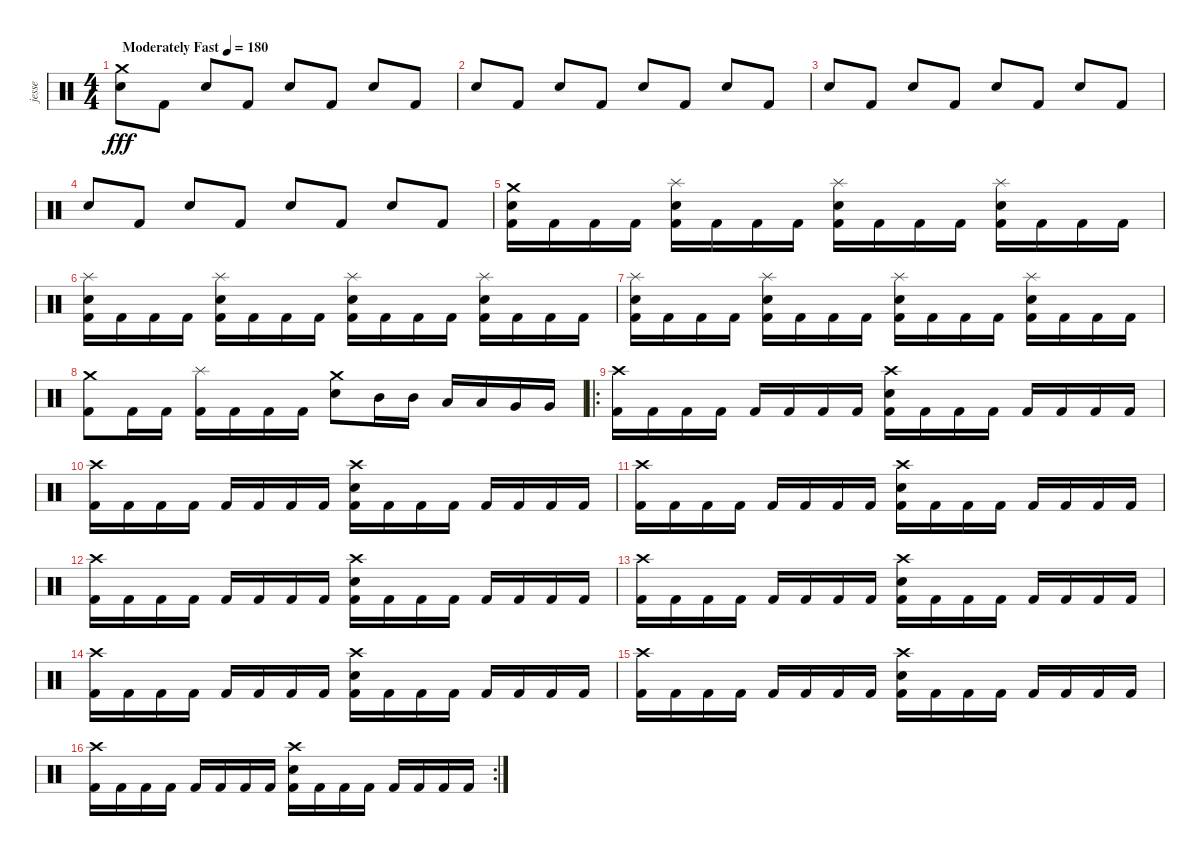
\track ("jesse" "jesse") {instrument percussion}
\staff {score}
\articulation defaults
\ts (4 4)
\tempo (180 "Moderately Fast")
\clef neutral
\ks c
("Crash medium (hit)" "Snare (hit) 2").8{dy fff} "Kick (hit) 2".8 "Snare (hit) 2".8 "Kick (hit) 2".8 "Snare (hit) 2".8 "Kick (hit) 2".8 "Snare (hit) 2".8 "Kick (hit) 2".8 |
"Snare (hit) 2".8 "Kick (hit) 2".8 "Snare (hit) 2".8 "Kick (hit) 2".8 "Snare (hit) 2".8 "Kick (hit) 2".8 "Snare (hit) 2".8 "Kick (hit) 2".8 |
"Snare (hit) 2".8 "Kick (hit) 2".8 "Snare (hit) 2".8 "Kick (hit) 2".8 "Snare (hit) 2".8 "Kick (hit) 2".8 "Snare (hit) 2".8 "Kick (hit) 2".8 |
"Snare (hit) 2".8 "Kick (hit) 2".8 "Snare (hit) 2".8 "Kick (hit) 2".8 "Snare (hit) 2".8 "Kick (hit) 2".8 "Snare (hit) 2".8 "Kick (hit) 2".8 |
("Crash medium (hit)" "Snare (hit) 2" "Kick (hit) 2").16 "Kick (hit) 2".16 "Kick (hit) 2".16 "Kick (hit) 2".16 ("Splash (hit)" "Snare (hit) 2" "Kick (hit) 2").16 "Kick (hit) 2".16 "Kick (hit) 2".16 "Kick (hit) 2".16 ("Splash (hit)" "Snare (hit) 2" "Kick (hit) 2").16 "Kick (hit) 2".16 "Kick (hit) 2".16 "Kick (hit) 2".16 ("Splash (hit)" "Snare (hit) 2" "Kick (hit) 2").16 "Kick (hit) 2".16 "Kick (hit) 2".16 "Kick (hit) 2".16 |
("Splash (hit)" "Snare (hit) 2" "Kick (hit) 2").16 "Kick (hit) 2".16 "Kick (hit) 2".16 "Kick (hit) 2".16 ("Splash (hit)" "Snare (hit) 2" "Kick (hit) 2").16 "Kick (hit) 2".16 "Kick (hit) 2".16 "Kick (hit) 2".16 ("Splash (hit)" "Snare (hit) 2" "Kick (hit) 2").16 "Kick (hit) 2".16 "Kick (hit) 2".16 "Kick (hit) 2".16 ("Splash (hit)" "Snare (hit) 2" "Kick (hit) 2").16 "Kick (hit) 2".16 "Kick (hit) 2".16 "Kick (hit) 2".16 |
("Splash (hit)" "Snare (hit) 2" "Kick (hit) 2").16 "Kick (hit) 2".16 "Kick (hit) 2".16 "Kick (hit) 2".16 ("Splash (hit)" "Snare (hit) 2" "Kick (hit) 2").16 "Kick (hit) 2".16 "Kick (hit) 2".16 "Kick (hit) 2".16 ("Splash (hit)" "Snare (hit) 2" "Kick (hit) 2").16 "Kick (hit) 2".16 "Kick (hit) 2".16 "Kick (hit) 2".16 ("Splash (hit)" "Snare (hit) 2" "Kick (hit) 2").16 "Kick (hit) 2".16 "Kick (hit) 2".16 "Kick (hit) 2".16 |
("Crash medium (hit)" "Kick (hit) 2").8 "Kick (hit) 2".16 "Kick (hit) 2".16 ("Splash (hit)" "Kick (hit) 2").16 "Kick (hit) 2".16 "Kick (hit) 2".16 "Kick (hit) 2".16 ("Crash medium (hit)" "Snare (hit) 2").8 "Mid Tom (hit)".16 "Mid Tom (hit)".16 "Low Tom (hit)".16 "Low Tom (hit)".16 "Very Low Tom (hit)".16 "Very Low Tom (hit)".16 |
\ro
("Crash high (hit)" "Kick (hit) 2").16 "Kick (hit) 2".16 "Kick (hit) 2".16 "Kick (hit) 2".16 "Kick (hit) 2".16 "Kick (hit) 2".16 "Kick (hit) 2".16 "Kick (hit) 2".16 ("Crash high (hit)" "Snare (hit) 2" "Kick (hit) 2").16 "Kick (hit) 2".16 "Kick (hit) 2".16 "Kick (hit) 2".16 "Kick (hit) 2".16 "Kick (hit) 2".16 "Kick (hit) 2".16 "Kick (hit) 2".16 |
("Crash high (hit)" "Kick (hit) 2").16 "Kick (hit) 2".16 "Kick (hit) 2".16 "Kick (hit) 2".16 "Kick (hit) 2".16 "Kick (hit) 2".16 "Kick (hit) 2".16 "Kick (hit) 2".16 ("Crash high (hit)" "Snare (hit) 2" "Kick (hit) 2").16 "Kick (hit) 2".16 "Kick (hit) 2".16 "Kick (hit) 2".16 "Kick (hit) 2".16 "Kick (hit) 2".16 "Kick (hit) 2".16 "Kick (hit) 2".16 |
("Crash high (hit)" "Kick (hit) 2").16 "Kick (hit) 2".16 "Kick (hit) 2".16 "Kick (hit) 2".16 "Kick (hit) 2".16 "Kick (hit) 2".16 "Kick (hit) 2".16 "Kick (hit) 2".16 ("Crash high (hit)" "Snare (hit) 2" "Kick (hit) 2").16 "Kick (hit) 2".16 "Kick (hit) 2".16 "Kick (hit) 2".16 "Kick (hit) 2".16 "Kick (hit) 2".16 "Kick (hit) 2".16 "Kick (hit) 2".16 |
("Crash high (hit)" "Kick (hit) 2").16 "Kick (hit) 2".16 "Kick (hit) 2".16 "Kick (hit) 2".16 "Kick (hit) 2".16 "Kick (hit) 2".16 "Kick (hit) 2".16 "Kick (hit) 2".16 ("Crash high (hit)" "Snare (hit) 2" "Kick (hit) 2").16 "Kick (hit) 2".16 "Kick (hit) 2".16 "Kick (hit) 2".16 "Kick (hit) 2".16 "Kick (hit) 2".16 "Kick (hit) 2".16 "Kick (hit) 2".16 |
("Crash high (hit)" "Kick (hit) 2").16 "Kick (hit) 2".16 "Kick (hit) 2".16 "Kick (hit) 2".16 "Kick (hit) 2".16 "Kick (hit) 2".16 "Kick (hit) 2".16 "Kick (hit) 2".16 ("Crash high (hit)" "Snare (hit) 2" "Kick (hit) 2").16 "Kick (hit) 2".16 "Kick (hit) 2".16 "Kick (hit) 2".16 "Kick (hit) 2".16 "Kick (hit) 2".16 "Kick (hit) 2".16 "Kick (hit) 2".16 |
("Crash high (hit)" "Kick (hit) 2").16 "Kick (hit) 2".16 "Kick (hit) 2".16 "Kick (hit) 2".16 "Kick (hit) 2".16 "Kick (hit) 2".16 "Kick (hit) 2".16 "Kick (hit) 2".16 ("Crash high (hit)" "Snare (hit) 2" "Kick (hit) 2").16 "Kick (hit) 2".16 "Kick (hit) 2".16 "Kick (hit) 2".16 "Kick (hit) 2".16 "Kick (hit) 2".16 "Kick (hit) 2".16 "Kick (hit) 2".16 |
("Crash high (hit)" "Kick (hit) 2").16 "Kick (hit) 2".16 "Kick (hit) 2".16 "Kick (hit) 2".16 "Kick (hit) 2".16 "Kick (hit) 2".16 "Kick (hit) 2".16 "Kick (hit) 2".16 ("Crash high (hit)" "Snare (hit) 2" "Kick (hit) 2").16 "Kick (hit) 2".16 "Kick (hit) 2".16 "Kick (hit) 2".16 "Kick (hit) 2".16 "Kick (hit) 2".16 "Kick (hit) 2".16 "Kick (hit) 2".16 |
\rc 2
("Crash high (hit)" "Kick (hit) 2").16 "Kick (hit) 2".16 "Kick (hit) 2".16 "Kick (hit) 2".16 "Kick (hit) 2".16 "Kick (hit) 2".16 "Kick (hit) 2".16 "Kick (hit) 2".16 ("Crash high (hit)" "Snare (hit) 2" "Kick (hit) 2").16 "Kick (hit) 2".16 "Kick (hit) 2".16 "Kick (hit) 2".16 "Kick (hit) 2".16 "Kick (hit) 2".16 "Kick (hit) 2".16 "Kick (hit) 2".16
